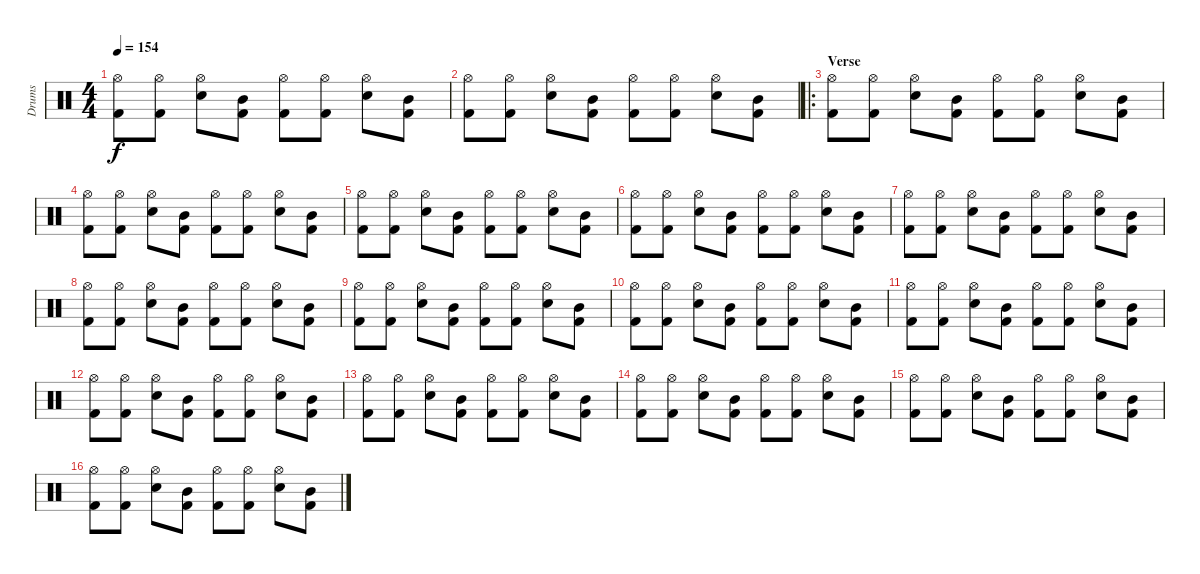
\track ("Drums" "Drums") {instrument percussion}
\staff {score}
\articulation defaults
\ts (4 4)
\tempo 154
\clef neutral
\ks c
("Hi-Hat (open)" "Kick (hit) 2").8{dy f} ("Hi-Hat (open)" "Kick (hit) 2").8 ("Hi-Hat (open)" "Electric Snare (hit)").8 ("Mid Tom (hit)" "Kick (hit) 2").8 ("Hi-Hat (open)" "Kick (hit) 2").8 ("Hi-Hat (open)" "Kick (hit) 2").8 ("Hi-Hat (open)" "Electric Snare (hit)").8 ("Mid Tom (hit)" "Kick (hit) 2").8 |
("Hi-Hat (open)" "Kick (hit) 2").8 ("Hi-Hat (open)" "Kick (hit) 2").8 ("Hi-Hat (open)" "Electric Snare (hit)").8 ("Mid Tom (hit)" "Kick (hit) 2").8 ("Hi-Hat (open)" "Kick (hit) 2").8 ("Hi-Hat (open)" "Kick (hit) 2").8 ("Hi-Hat (open)" "Electric Snare (hit)").8 ("Mid Tom (hit)" "Kick (hit) 2").8 |
\ro
\section ("" "Verse")
("Hi-Hat (open)" "Kick (hit) 2").8 ("Hi-Hat (open)" "Kick (hit) 2").8 ("Hi-Hat (open)" "Electric Snare (hit)").8 ("Mid Tom (hit)" "Kick (hit) 2").8 ("Hi-Hat (open)" "Kick (hit) 2").8 ("Hi-Hat (open)" "Kick (hit) 2").8 ("Hi-Hat (open)" "Electric Snare (hit)").8 ("Mid Tom (hit)" "Kick (hit) 2").8 |
("Hi-Hat (open)" "Kick (hit) 2").8 ("Hi-Hat (open)" "Kick (hit) 2").8 ("Hi-Hat (open)" "Electric Snare (hit)").8 ("Mid Tom (hit)" "Kick (hit) 2").8 ("Hi-Hat (open)" "Kick (hit) 2").8 ("Hi-Hat (open)" "Kick (hit) 2").8 ("Hi-Hat (open)" "Electric Snare (hit)").8 ("Mid Tom (hit)" "Kick (hit) 2").8 |
("Hi-Hat (open)" "Kick (hit) 2").8 ("Hi-Hat (open)" "Kick (hit) 2").8 ("Hi-Hat (open)" "Electric Snare (hit)").8 ("Mid Tom (hit)" "Kick (hit) 2").8 ("Hi-Hat (open)" "Kick (hit) 2").8 ("Hi-Hat (open)" "Kick (hit) 2").8 ("Hi-Hat (open)" "Electric Snare (hit)").8 ("Mid Tom (hit)" "Kick (hit) 2").8 |
("Hi-Hat (open)" "Kick (hit) 2").8 ("Hi-Hat (open)" "Kick (hit) 2").8 ("Hi-Hat (open)" "Electric Snare (hit)").8 ("Mid Tom (hit)" "Kick (hit) 2").8 ("Hi-Hat (open)" "Kick (hit) 2").8 ("Hi-Hat (open)" "Kick (hit) 2").8 ("Hi-Hat (open)" "Electric Snare (hit)").8 ("Mid Tom (hit)" "Kick (hit) 2").8 |
("Hi-Hat (open)" "Kick (hit) 2").8 ("Hi-Hat (open)" "Kick (hit) 2").8 ("Hi-Hat (open)" "Electric Snare (hit)").8 ("Mid Tom (hit)" "Kick (hit) 2").8 ("Hi-Hat (open)" "Kick (hit) 2").8 ("Hi-Hat (open)" "Kick (hit) 2").8 ("Hi-Hat (open)" "Electric Snare (hit)").8 ("Mid Tom (hit)" "Kick (hit) 2").8 |
("Hi-Hat (open)" "Kick (hit) 2").8 ("Hi-Hat (open)" "Kick (hit) 2").8 ("Hi-Hat (open)" "Electric Snare (hit)").8 ("Mid Tom (hit)" "Kick (hit) 2").8 ("Hi-Hat (open)" "Kick (hit) 2").8 ("Hi-Hat (open)" "Kick (hit) 2").8 ("Hi-Hat (open)" "Electric Snare (hit)").8 ("Mid Tom (hit)" "Kick (hit) 2").8 |
("Hi-Hat (open)" "Kick (hit) 2").8 ("Hi-Hat (open)" "Kick (hit) 2").8 ("Hi-Hat (open)" "Electric Snare (hit)").8 ("Mid Tom (hit)" "Kick (hit) 2").8 ("Hi-Hat (open)" "Kick (hit) 2").8 ("Hi-Hat (open)" "Kick (hit) 2").8 ("Hi-Hat (open)" "Electric Snare (hit)").8 ("Mid Tom (hit)" "Kick (hit) 2").8 |
("Hi-Hat (open)" "Kick (hit) 2").8 ("Hi-Hat (open)" "Kick (hit) 2").8 ("Hi-Hat (open)" "Electric Snare (hit)").8 ("Mid Tom (hit)" "Kick (hit) 2").8 ("Hi-Hat (open)" "Kick (hit) 2").8 ("Hi-Hat (open)" "Kick (hit) 2").8 ("Hi-Hat (open)" "Electric Snare (hit)").8 ("Mid Tom (hit)" "Kick (hit) 2").8 |
("Hi-Hat (open)" "Kick (hit) 2").8 ("Hi-Hat (open)" "Kick (hit) 2").8 ("Hi-Hat (open)" "Electric Snare (hit)").8 ("Mid Tom (hit)" "Kick (hit) 2").8 ("Hi-Hat (open)" "Kick (hit) 2").8 ("Hi-Hat (open)" "Kick (hit) 2").8 ("Hi-Hat (open)" "Electric Snare (hit)").8 ("Mid Tom (hit)" "Kick (hit) 2").8 |
("Hi-Hat (open)" "Kick (hit) 2").8 ("Hi-Hat (open)" "Kick (hit) 2").8 ("Hi-Hat (open)" "Electric Snare (hit)").8 ("Mid Tom (hit)" "Kick (hit) 2").8 ("Hi-Hat (open)" "Kick (hit) 2").8 ("Hi-Hat (open)" "Kick (hit) 2").8 ("Hi-Hat (open)" "Electric Snare (hit)").8 ("Mid Tom (hit)" "Kick (hit) 2").8 |
("Hi-Hat (open)" "Kick (hit) 2").8 ("Hi-Hat (open)" "Kick (hit) 2").8 ("Hi-Hat (open)" "Electric Snare (hit)").8 ("Mid Tom (hit)" "Kick (hit) 2").8 ("Hi-Hat (open)" "Kick (hit) 2").8 ("Hi-Hat (open)" "Kick (hit) 2").8 ("Hi-Hat (open)" "Electric Snare (hit)").8 ("Mid Tom (hit)" "Kick (hit) 2").8 |
("Hi-Hat (open)" "Kick (hit) 2").8 ("Hi-Hat (open)" "Kick (hit) 2").8 ("Hi-Hat (open)" "Electric Snare (hit)").8 ("Mid Tom (hit)" "Kick (hit) 2").8 ("Hi-Hat (open)" "Kick (hit) 2").8 ("Hi-Hat (open)" "Kick (hit) 2").8 ("Hi-Hat (open)" "Electric Snare (hit)").8 ("Mid Tom (hit)" "Kick (hit) 2").8 |
("Hi-Hat (open)" "Kick (hit) 2").8 ("Hi-Hat (open)" "Kick (hit) 2").8 ("Hi-Hat (open)" "Electric Snare (hit)").8 ("Mid Tom (hit)" "Kick (hit) 2").8 ("Hi-Hat (open)" "Kick (hit) 2").8 ("Hi-Hat (open)" "Kick (hit) 2").8 ("Hi-Hat (open)" "Electric Snare (hit)").8 ("Mid Tom (hit)" "Kick (hit) 2").8 |
("Hi-Hat (open)" "Kick (hit) 2").8 ("Hi-Hat (open)" "Kick (hit) 2").8 ("Hi-Hat (open)" "Electric Snare (hit)").8 ("Mid Tom (hit)" "Kick (hit) 2").8 ("Hi-Hat (open)" "Kick (hit) 2").8 ("Hi-Hat (open)" "Kick (hit) 2").8 ("Hi-Hat (open)" "Electric Snare (hit)").8 ("Mid Tom (hit)" "Kick (hit) 2").8
